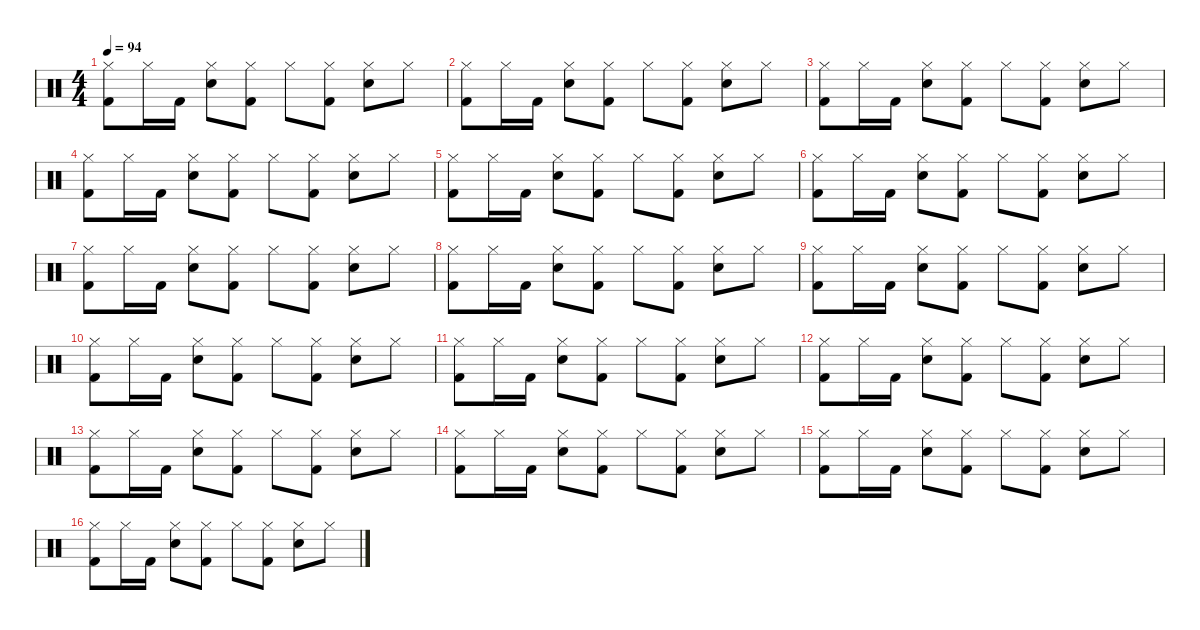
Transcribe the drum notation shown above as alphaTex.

\defaultSystemsLayout 4
\hideDynamics
\bracketExtendMode nobrackets
\singleTrackTrackNamePolicy hidden
\multiTrackTrackNamePolicy hidden
\otherSystemsTrackNameOrientation horizontal
\track ("Mike Joyce" "drm.") {instrument percussion}
\staff {score}
\articulation defaults
\ts (4 4)
\tempo 94
\clef neutral
\ks c
("Hi-Hat (closed)" "Kick (hit) 2").8{dy f} "Hi-Hat (closed)".16 "Kick (hit) 2".16 ("Hi-Hat (closed)" "Snare (hit) 2").8 ("Hi-Hat (closed)" "Kick (hit) 2").8 "Hi-Hat (closed)".8 ("Hi-Hat (closed)" "Kick (hit) 2").8 ("Hi-Hat (closed)" "Snare (hit) 2").8 "Hi-Hat (closed)".8 |
("Hi-Hat (closed)" "Kick (hit) 2").8 "Hi-Hat (closed)".16 "Kick (hit) 2".16 ("Hi-Hat (closed)" "Snare (hit) 2").8 ("Hi-Hat (closed)" "Kick (hit) 2").8 "Hi-Hat (closed)".8 ("Hi-Hat (closed)" "Kick (hit) 2").8 ("Hi-Hat (closed)" "Snare (hit) 2").8 "Hi-Hat (closed)".8 |
("Hi-Hat (closed)" "Kick (hit) 2").8 "Hi-Hat (closed)".16 "Kick (hit) 2".16 ("Hi-Hat (closed)" "Snare (hit) 2").8 ("Hi-Hat (closed)" "Kick (hit) 2").8 "Hi-Hat (closed)".8 ("Hi-Hat (closed)" "Kick (hit) 2").8 ("Hi-Hat (closed)" "Snare (hit) 2").8 "Hi-Hat (closed)".8 |
("Hi-Hat (closed)" "Kick (hit) 2").8 "Hi-Hat (closed)".16 "Kick (hit) 2".16 ("Hi-Hat (closed)" "Snare (hit) 2").8 ("Hi-Hat (closed)" "Kick (hit) 2").8 "Hi-Hat (closed)".8 ("Hi-Hat (closed)" "Kick (hit) 2").8 ("Hi-Hat (closed)" "Snare (hit) 2").8 "Hi-Hat (closed)".8 |
("Hi-Hat (closed)" "Kick (hit) 2").8 "Hi-Hat (closed)".16 "Kick (hit) 2".16 ("Hi-Hat (closed)" "Snare (hit) 2").8 ("Hi-Hat (closed)" "Kick (hit) 2").8 "Hi-Hat (closed)".8 ("Hi-Hat (closed)" "Kick (hit) 2").8 ("Hi-Hat (closed)" "Snare (hit) 2").8 "Hi-Hat (closed)".8 |
("Hi-Hat (closed)" "Kick (hit) 2").8 "Hi-Hat (closed)".16 "Kick (hit) 2".16 ("Hi-Hat (closed)" "Snare (hit) 2").8 ("Hi-Hat (closed)" "Kick (hit) 2").8 "Hi-Hat (closed)".8 ("Hi-Hat (closed)" "Kick (hit) 2").8 ("Hi-Hat (closed)" "Snare (hit) 2").8 "Hi-Hat (closed)".8 |
("Hi-Hat (closed)" "Kick (hit) 2").8 "Hi-Hat (closed)".16 "Kick (hit) 2".16 ("Hi-Hat (closed)" "Snare (hit) 2").8 ("Hi-Hat (closed)" "Kick (hit) 2").8 "Hi-Hat (closed)".8 ("Hi-Hat (closed)" "Kick (hit) 2").8 ("Hi-Hat (closed)" "Snare (hit) 2").8 "Hi-Hat (closed)".8 |
("Hi-Hat (closed)" "Kick (hit) 2").8 "Hi-Hat (closed)".16 "Kick (hit) 2".16 ("Hi-Hat (closed)" "Snare (hit) 2").8 ("Hi-Hat (closed)" "Kick (hit) 2").8 "Hi-Hat (closed)".8 ("Hi-Hat (closed)" "Kick (hit) 2").8 ("Hi-Hat (closed)" "Snare (hit) 2").8 "Hi-Hat (closed)".8 |
("Hi-Hat (closed)" "Kick (hit) 2").8 "Hi-Hat (closed)".16 "Kick (hit) 2".16 ("Hi-Hat (closed)" "Snare (hit) 2").8 ("Hi-Hat (closed)" "Kick (hit) 2").8 "Hi-Hat (closed)".8 ("Hi-Hat (closed)" "Kick (hit) 2").8 ("Hi-Hat (closed)" "Snare (hit) 2").8 "Hi-Hat (closed)".8 |
("Hi-Hat (closed)" "Kick (hit) 2").8 "Hi-Hat (closed)".16 "Kick (hit) 2".16 ("Hi-Hat (closed)" "Snare (hit) 2").8 ("Hi-Hat (closed)" "Kick (hit) 2").8 "Hi-Hat (closed)".8 ("Hi-Hat (closed)" "Kick (hit) 2").8 ("Hi-Hat (closed)" "Snare (hit) 2").8 "Hi-Hat (closed)".8 |
("Hi-Hat (closed)" "Kick (hit) 2").8 "Hi-Hat (closed)".16 "Kick (hit) 2".16 ("Hi-Hat (closed)" "Snare (hit) 2").8 ("Hi-Hat (closed)" "Kick (hit) 2").8 "Hi-Hat (closed)".8 ("Hi-Hat (closed)" "Kick (hit) 2").8 ("Hi-Hat (closed)" "Snare (hit) 2").8 "Hi-Hat (closed)".8 |
("Hi-Hat (closed)" "Kick (hit) 2").8 "Hi-Hat (closed)".16 "Kick (hit) 2".16 ("Hi-Hat (closed)" "Snare (hit) 2").8 ("Hi-Hat (closed)" "Kick (hit) 2").8 "Hi-Hat (closed)".8 ("Hi-Hat (closed)" "Kick (hit) 2").8 ("Hi-Hat (closed)" "Snare (hit) 2").8 "Hi-Hat (closed)".8 |
("Hi-Hat (closed)" "Kick (hit) 2").8 "Hi-Hat (closed)".16 "Kick (hit) 2".16 ("Hi-Hat (closed)" "Snare (hit) 2").8 ("Hi-Hat (closed)" "Kick (hit) 2").8 "Hi-Hat (closed)".8 ("Hi-Hat (closed)" "Kick (hit) 2").8 ("Hi-Hat (closed)" "Snare (hit) 2").8 "Hi-Hat (closed)".8 |
("Hi-Hat (closed)" "Kick (hit) 2").8 "Hi-Hat (closed)".16 "Kick (hit) 2".16 ("Hi-Hat (closed)" "Snare (hit) 2").8 ("Hi-Hat (closed)" "Kick (hit) 2").8 "Hi-Hat (closed)".8 ("Hi-Hat (closed)" "Kick (hit) 2").8 ("Hi-Hat (closed)" "Snare (hit) 2").8 "Hi-Hat (closed)".8 |
("Hi-Hat (closed)" "Kick (hit) 2").8 "Hi-Hat (closed)".16 "Kick (hit) 2".16 ("Hi-Hat (closed)" "Snare (hit) 2").8 ("Hi-Hat (closed)" "Kick (hit) 2").8 "Hi-Hat (closed)".8 ("Hi-Hat (closed)" "Kick (hit) 2").8 ("Hi-Hat (closed)" "Snare (hit) 2").8 "Hi-Hat (closed)".8 |
("Hi-Hat (closed)" "Kick (hit) 2").8 "Hi-Hat (closed)".16 "Kick (hit) 2".16 ("Hi-Hat (closed)" "Snare (hit) 2").8 ("Hi-Hat (closed)" "Kick (hit) 2").8 "Hi-Hat (closed)".8 ("Hi-Hat (closed)" "Kick (hit) 2").8 ("Hi-Hat (closed)" "Snare (hit) 2").8 "Hi-Hat (closed)".8
